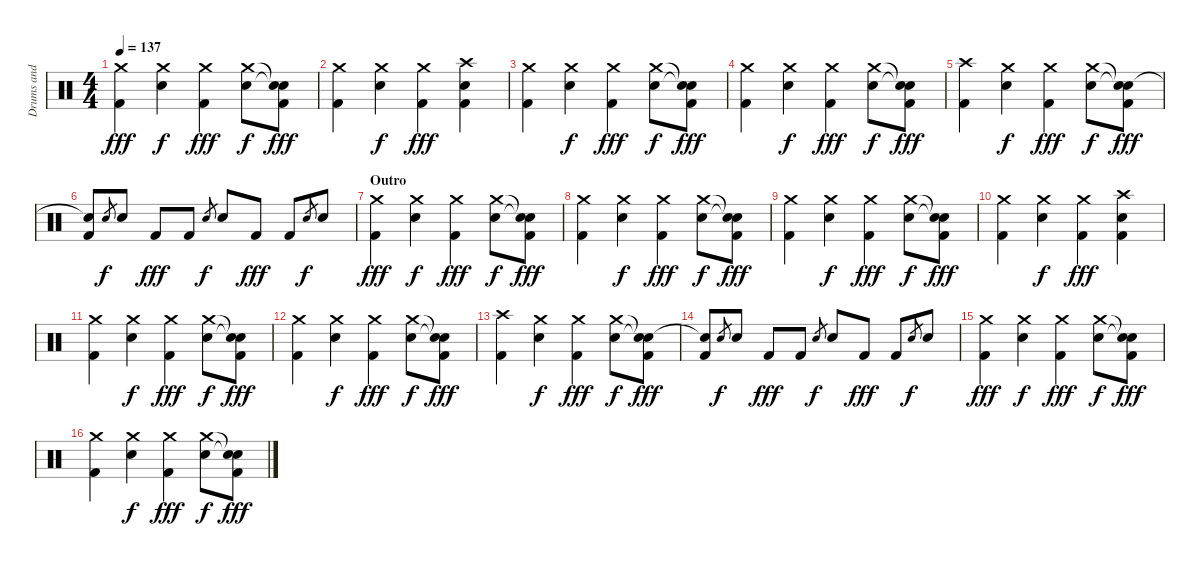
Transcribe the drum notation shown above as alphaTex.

\track ("Drums and Percussion" "Drums and ") {instrument percussion}
\staff {score}
\articulation defaults
\ts (4 4)
\tempo 137
\clef neutral
\ks c
("Crash medium (hit)" "Kick (hit) 2").4{dy fff} ("Crash medium (hit)" "Electric Snare (hit)").4{dy f} ("Crash medium (hit)" "Kick (hit) 2").4{dy fff} ("Crash medium (hit)" "Electric Snare (hit)").8{dy f} ("Snare (hit)"{t} "Snare (hit)"{t} "Kick (hit) 2").8{dy fff} |
("Crash medium (hit)" "Kick (hit) 2").4 ("Crash medium (hit)" "Electric Snare (hit)").4{dy f} ("Crash medium (hit)" "Kick (hit) 2").4{dy fff} ("Crash high (hit)" "Electric Snare (hit)" "Kick (hit) 2").4 |
("Crash medium (hit)" "Kick (hit) 2").4 ("Crash medium (hit)" "Electric Snare (hit)").4{dy f} ("Crash medium (hit)" "Kick (hit) 2").4{dy fff} ("Crash medium (hit)" "Electric Snare (hit)").8{dy f} ("Snare (hit)"{t} "Snare (hit)"{t} "Kick (hit) 2").8{dy fff} |
("Crash medium (hit)" "Kick (hit) 2").4 ("Crash medium (hit)" "Electric Snare (hit)").4{dy f} ("Crash medium (hit)" "Kick (hit) 2").4{dy fff} ("Crash medium (hit)" "Electric Snare (hit)").8{dy f} ("Snare (hit)"{t} "Snare (hit)"{t} "Kick (hit) 2").8{dy fff} |
("Crash high (hit)" "Kick (hit) 2").4 ("Crash medium (hit)" "Electric Snare (hit)").4{dy f} ("Crash medium (hit)" "Kick (hit) 2").4{dy fff} ("Crash medium (hit)" "Electric Snare (hit)").8{dy f} ("Snare (hit)"{t} "Snare (hit)"{t} "Kick (hit) 2").8{dy fff} |
("Snare (hit)"{t} "Kick (hit) 2").8 "Electric Snare (hit)".8{gr dy f} "Electric Snare (hit)".8 "Kick (hit) 2".8{dy fff} "Kick (hit) 2".8 "Electric Snare (hit)".8{gr dy f} "Electric Snare (hit)".8 "Kick (hit) 2".8{dy fff} "Kick (hit) 2".8 "Electric Snare (hit)".8{gr dy f} "Electric Snare (hit)".8 |
\section ("" "Outro")
("Crash medium (hit)" "Kick (hit) 2").4{dy fff} ("Crash medium (hit)" "Electric Snare (hit)").4{dy f} ("Crash medium (hit)" "Kick (hit) 2").4{dy fff} ("Crash medium (hit)" "Electric Snare (hit)").8{dy f} ("Snare (hit)"{t} "Snare (hit)"{t} "Kick (hit) 2").8{dy fff} |
("Crash medium (hit)" "Kick (hit) 2").4 ("Crash medium (hit)" "Electric Snare (hit)").4{dy f} ("Crash medium (hit)" "Kick (hit) 2").4{dy fff} ("Crash medium (hit)" "Electric Snare (hit)").8{dy f} ("Snare (hit)"{t} "Snare (hit)"{t} "Kick (hit) 2").8{dy fff} |
("Crash medium (hit)" "Kick (hit) 2").4 ("Crash medium (hit)" "Electric Snare (hit)").4{dy f} ("Crash medium (hit)" "Kick (hit) 2").4{dy fff} ("Crash medium (hit)" "Electric Snare (hit)").8{dy f} ("Snare (hit)"{t} "Snare (hit)"{t} "Kick (hit) 2").8{dy fff} |
("Crash medium (hit)" "Kick (hit) 2").4 ("Crash medium (hit)" "Electric Snare (hit)").4{dy f} ("Crash medium (hit)" "Kick (hit) 2").4{dy fff} ("Crash high (hit)" "Electric Snare (hit)" "Kick (hit) 2").4 |
("Crash medium (hit)" "Kick (hit) 2").4 ("Crash medium (hit)" "Electric Snare (hit)").4{dy f} ("Crash medium (hit)" "Kick (hit) 2").4{dy fff} ("Crash medium (hit)" "Electric Snare (hit)").8{dy f} ("Snare (hit)"{t} "Snare (hit)"{t} "Kick (hit) 2").8{dy fff} |
("Crash medium (hit)" "Kick (hit) 2").4 ("Crash medium (hit)" "Electric Snare (hit)").4{dy f} ("Crash medium (hit)" "Kick (hit) 2").4{dy fff} ("Crash medium (hit)" "Electric Snare (hit)").8{dy f} ("Snare (hit)"{t} "Snare (hit)"{t} "Kick (hit) 2").8{dy fff} |
("Crash high (hit)" "Kick (hit) 2").4 ("Crash medium (hit)" "Electric Snare (hit)").4{dy f} ("Crash medium (hit)" "Kick (hit) 2").4{dy fff} ("Crash medium (hit)" "Electric Snare (hit)").8{dy f} ("Snare (hit)"{t} "Snare (hit)"{t} "Kick (hit) 2").8{dy fff} |
("Snare (hit)"{t} "Kick (hit) 2").8 "Electric Snare (hit)".8{gr dy f} "Electric Snare (hit)".8 "Kick (hit) 2".8{dy fff} "Kick (hit) 2".8 "Electric Snare (hit)".8{gr dy f} "Electric Snare (hit)".8 "Kick (hit) 2".8{dy fff} "Kick (hit) 2".8 "Electric Snare (hit)".8{gr dy f} "Electric Snare (hit)".8 |
("Crash medium (hit)" "Kick (hit) 2").4{dy fff} ("Crash medium (hit)" "Electric Snare (hit)").4{dy f} ("Crash medium (hit)" "Kick (hit) 2").4{dy fff} ("Crash medium (hit)" "Electric Snare (hit)").8{dy f} ("Snare (hit)"{t} "Snare (hit)"{t} "Kick (hit) 2").8{dy fff} |
("Crash medium (hit)" "Kick (hit) 2").4 ("Crash medium (hit)" "Electric Snare (hit)").4{dy f} ("Crash medium (hit)" "Kick (hit) 2").4{dy fff} ("Crash medium (hit)" "Electric Snare (hit)").8{dy f} ("Snare (hit)"{t} "Snare (hit)"{t} "Kick (hit) 2").8{dy fff}
